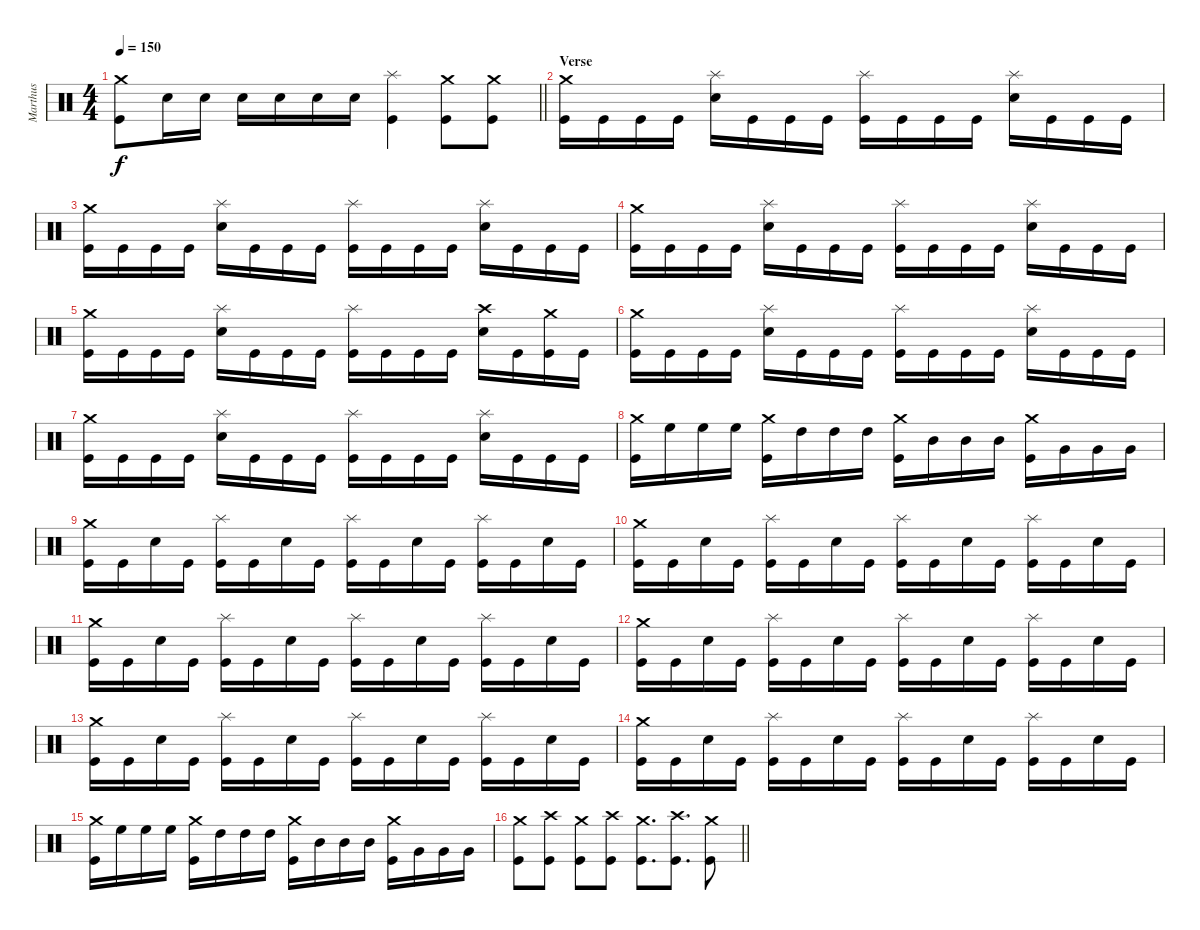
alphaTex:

\track ("Marthus" "Marthus") {instrument percussion}
\staff {score}
\articulation defaults
\ts (4 4)
\tempo 150
\clef neutral
\barLineRight lightlight
\ks c
("Crash medium (hit)" "Kick (hit)").8{dy f} "Snare (hit) 2".16 "Snare (hit) 2".16 "Snare (hit) 2".16 "Snare (hit) 2".16 "Snare (hit) 2".16 "Snare (hit) 2".16 ("Splash (hit)" "Kick (hit)").4 ("Crash medium (hit)" "Kick (hit)").8 ("Crash medium (hit)" "Kick (hit)").8 |
\section ("" "Verse")
("Crash medium (hit)" "Kick (hit)").16 "Kick (hit)".16 "Kick (hit)".16 "Kick (hit)".16 ("Splash (hit)" "Snare (hit) 2").16 "Kick (hit)".16 "Kick (hit)".16 "Kick (hit)".16 ("Splash (hit)" "Kick (hit)").16 "Kick (hit)".16 "Kick (hit)".16 "Kick (hit)".16 ("Splash (hit)" "Snare (hit) 2").16 "Kick (hit)".16 "Kick (hit)".16 "Kick (hit)".16 |
("Crash medium (hit)" "Kick (hit)").16 "Kick (hit)".16 "Kick (hit)".16 "Kick (hit)".16 ("Splash (hit)" "Snare (hit) 2").16 "Kick (hit)".16 "Kick (hit)".16 "Kick (hit)".16 ("Splash (hit)" "Kick (hit)").16 "Kick (hit)".16 "Kick (hit)".16 "Kick (hit)".16 ("Splash (hit)" "Snare (hit) 2").16 "Kick (hit)".16 "Kick (hit)".16 "Kick (hit)".16 |
("Crash medium (hit)" "Kick (hit)").16 "Kick (hit)".16 "Kick (hit)".16 "Kick (hit)".16 ("Splash (hit)" "Snare (hit) 2").16 "Kick (hit)".16 "Kick (hit)".16 "Kick (hit)".16 ("Splash (hit)" "Kick (hit)").16 "Kick (hit)".16 "Kick (hit)".16 "Kick (hit)".16 ("Splash (hit)" "Snare (hit) 2").16 "Kick (hit)".16 "Kick (hit)".16 "Kick (hit)".16 |
("Crash medium (hit)" "Kick (hit)").16 "Kick (hit)".16 "Kick (hit)".16 "Kick (hit)".16 ("Splash (hit)" "Snare (hit) 2").16 "Kick (hit)".16 "Kick (hit)".16 "Kick (hit)".16 ("Splash (hit)" "Kick (hit)").16 "Kick (hit)".16 "Kick (hit)".16 "Kick (hit)".16 ("Crash high (hit)" "Snare (hit) 2").16 "Kick (hit)".16 ("Crash medium (hit)" "Kick (hit)").16 "Kick (hit)".16 |
("Crash medium (hit)" "Kick (hit)").16 "Kick (hit)".16 "Kick (hit)".16 "Kick (hit)".16 ("Splash (hit)" "Snare (hit) 2").16 "Kick (hit)".16 "Kick (hit)".16 "Kick (hit)".16 ("Splash (hit)" "Kick (hit)").16 "Kick (hit)".16 "Kick (hit)".16 "Kick (hit)".16 ("Splash (hit)" "Snare (hit) 2").16 "Kick (hit)".16 "Kick (hit)".16 "Kick (hit)".16 |
("Crash medium (hit)" "Kick (hit)").16 "Kick (hit)".16 "Kick (hit)".16 "Kick (hit)".16 ("Splash (hit)" "Snare (hit) 2").16 "Kick (hit)".16 "Kick (hit)".16 "Kick (hit)".16 ("Splash (hit)" "Kick (hit)").16 "Kick (hit)".16 "Kick (hit)".16 "Kick (hit)".16 ("Splash (hit)" "Snare (hit) 2").16 "Kick (hit)".16 "Kick (hit)".16 "Kick (hit)".16 |
("Crash medium (hit)" "Kick (hit)").16 "High Floor Tom (hit)".16 "High Floor Tom (hit)".16 "High Floor Tom (hit)".16 ("Crash medium (hit)" "Kick (hit)").16 "High Tom (hit)".16 "High Tom (hit)".16 "High Tom (hit)".16 ("Crash medium (hit)" "Kick (hit)").16 "Mid Tom (hit)".16 "Mid Tom (hit)".16 "Mid Tom (hit)".16 ("Crash medium (hit)" "Kick (hit)").16 "Very Low Tom (hit)".16 "Very Low Tom (hit)".16 "Very Low Tom (hit)".16 |
("Crash medium (hit)" "Kick (hit)").16 "Kick (hit)".16 "Snare (hit) 2".16 "Kick (hit)".16 ("Splash (hit)" "Kick (hit)").16 "Kick (hit)".16 "Snare (hit) 2".16 "Kick (hit)".16 ("Splash (hit)" "Kick (hit)").16 "Kick (hit)".16 "Snare (hit) 2".16 "Kick (hit)".16 ("Splash (hit)" "Kick (hit)").16 "Kick (hit)".16 "Snare (hit) 2".16 "Kick (hit)".16 |
("Crash medium (hit)" "Kick (hit)").16 "Kick (hit)".16 "Snare (hit) 2".16 "Kick (hit)".16 ("Splash (hit)" "Kick (hit)").16 "Kick (hit)".16 "Snare (hit) 2".16 "Kick (hit)".16 ("Splash (hit)" "Kick (hit)").16 "Kick (hit)".16 "Snare (hit) 2".16 "Kick (hit)".16 ("Splash (hit)" "Kick (hit)").16 "Kick (hit)".16 "Snare (hit) 2".16 "Kick (hit)".16 |
("Crash medium (hit)" "Kick (hit)").16 "Kick (hit)".16 "Snare (hit) 2".16 "Kick (hit)".16 ("Splash (hit)" "Kick (hit)").16 "Kick (hit)".16 "Snare (hit) 2".16 "Kick (hit)".16 ("Splash (hit)" "Kick (hit)").16 "Kick (hit)".16 "Snare (hit) 2".16 "Kick (hit)".16 ("Splash (hit)" "Kick (hit)").16 "Kick (hit)".16 "Snare (hit) 2".16 "Kick (hit)".16 |
("Crash medium (hit)" "Kick (hit)").16 "Kick (hit)".16 "Snare (hit) 2".16 "Kick (hit)".16 ("Splash (hit)" "Kick (hit)").16 "Kick (hit)".16 "Snare (hit) 2".16 "Kick (hit)".16 ("Splash (hit)" "Kick (hit)").16 "Kick (hit)".16 "Snare (hit) 2".16 "Kick (hit)".16 ("Splash (hit)" "Kick (hit)").16 "Kick (hit)".16 "Snare (hit) 2".16 "Kick (hit)".16 |
("Crash medium (hit)" "Kick (hit)").16 "Kick (hit)".16 "Snare (hit) 2".16 "Kick (hit)".16 ("Splash (hit)" "Kick (hit)").16 "Kick (hit)".16 "Snare (hit) 2".16 "Kick (hit)".16 ("Splash (hit)" "Kick (hit)").16 "Kick (hit)".16 "Snare (hit) 2".16 "Kick (hit)".16 ("Splash (hit)" "Kick (hit)").16 "Kick (hit)".16 "Snare (hit) 2".16 "Kick (hit)".16 |
("Crash medium (hit)" "Kick (hit)").16 "Kick (hit)".16 "Snare (hit) 2".16 "Kick (hit)".16 ("Splash (hit)" "Kick (hit)").16 "Kick (hit)".16 "Snare (hit) 2".16 "Kick (hit)".16 ("Splash (hit)" "Kick (hit)").16 "Kick (hit)".16 "Snare (hit) 2".16 "Kick (hit)".16 ("Splash (hit)" "Kick (hit)").16 "Kick (hit)".16 "Snare (hit) 2".16 "Kick (hit)".16 |
("Crash medium (hit)" "Kick (hit)").16 "High Floor Tom (hit)".16 "High Floor Tom (hit)".16 "High Floor Tom (hit)".16 ("Crash medium (hit)" "Kick (hit)").16 "High Tom (hit)".16 "High Tom (hit)".16 "High Tom (hit)".16 ("Crash medium (hit)" "Kick (hit)").16 "Mid Tom (hit)".16 "Mid Tom (hit)".16 "Mid Tom (hit)".16 ("Crash medium (hit)" "Kick (hit)").16 "Very Low Tom (hit)".16 "Very Low Tom (hit)".16 "Very Low Tom (hit)".16 |
\barLineRight lightlight
("Kick (hit)" "Crash medium (hit)").8 ("Kick (hit)" "Crash high (hit)").8 ("Kick (hit)" "Crash medium (hit)").8 ("Kick (hit)" "Crash high (hit)").8 ("Kick (hit)" "Crash medium (hit)").8{d} ("Kick (hit)" "Crash high (hit)").8{d} ("Kick (hit)" "Crash medium (hit)").8
